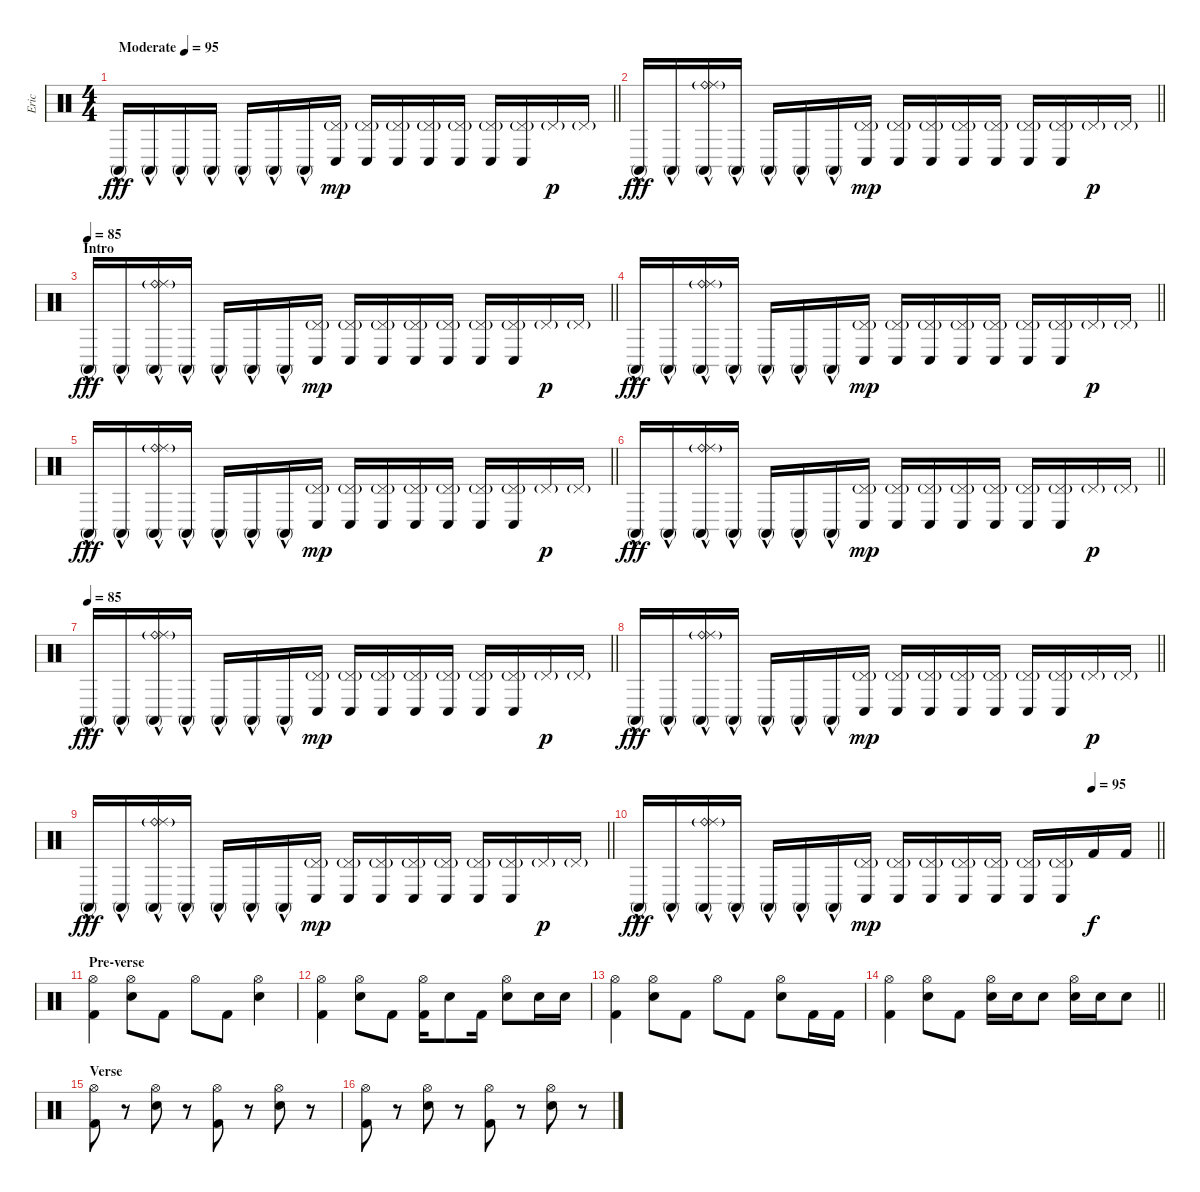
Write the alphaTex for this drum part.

\track ("Eric" "Eric") {instrument percussion}
\staff {score}
\articulation defaults
\ts (4 4)
\tempo (95 "Moderate")
\clef neutral
\barLineRight lightlight
\ks c "Conga high (mute)"{hac}.16{dy fff} "Conga high (mute)"{hac}.16 "Conga high (mute)"{hac}.16 "Conga high (mute)"{hac}.16 "Conga high (mute)"{hac}.16 "Conga high (mute)"{hac}.16 "Conga high (mute)"{hac}.16
("Pedal Hi-Hat (hit)"{g} "Conga low (hit)").16{dy mp} ("Pedal Hi-Hat (hit)"{g} "Conga low (hit)").16 ("Pedal Hi-Hat (hit)"{g} "Conga low (hit)").16 ("Pedal Hi-Hat (hit)"{g} "Conga low (hit)").16 ("Pedal Hi-Hat (hit)"{g} "Conga low (hit)").16 ("Pedal Hi-Hat (hit)"{g} "Conga low (hit)").16 ("Pedal Hi-Hat (hit)"{g} "Conga low (hit)").16 "Pedal Hi-Hat (hit)"{g}.16{dy p} "Pedal Hi-Hat (hit)"{g}.16 |
\barLineRight lightlight "Conga high (mute)"{hac}.16{dy fff} "Conga high (mute)"{hac}.16
("Ride (bell)"{g} "Ride (middle)"{g} "Conga high (mute)"{hac}).16 "Conga high (mute)"{hac}.16 "Conga high (mute)"{hac}.16 "Conga high (mute)"{hac}.16 "Conga high (mute)"{hac}.16 ("Pedal Hi-Hat (hit)"{g} "Conga low (hit)").16{dy mp} ("Pedal Hi-Hat (hit)"{g} "Conga low (hit)").16 ("Pedal Hi-Hat (hit)"{g} "Conga low (hit)").16 ("Pedal Hi-Hat (hit)"{g} "Conga low (hit)").16 ("Pedal Hi-Hat (hit)"{g} "Conga low (hit)").16 ("Pedal Hi-Hat (hit)"{g} "Conga low (hit)").16 ("Pedal Hi-Hat (hit)"{g} "Conga low (hit)").16 "Pedal Hi-Hat (hit)"{g}.16{dy p} "Pedal Hi-Hat (hit)"{g}.16 |
\section ("" "Intro")
\tempo 85
\barLineRight lightlight "Conga high (mute)"{hac}.16{dy fff} "Conga high (mute)"{hac}.16
("Ride (bell)"{g} "Ride (middle)"{g} "Conga high (mute)"{hac}).16 "Conga high (mute)"{hac}.16 "Conga high (mute)"{hac}.16 "Conga high (mute)"{hac}.16 "Conga high (mute)"{hac}.16 ("Pedal Hi-Hat (hit)"{g} "Conga low (hit)").16{dy mp} ("Pedal Hi-Hat (hit)"{g} "Conga low (hit)").16 ("Pedal Hi-Hat (hit)"{g} "Conga low (hit)").16 ("Pedal Hi-Hat (hit)"{g} "Conga low (hit)").16 ("Pedal Hi-Hat (hit)"{g} "Conga low (hit)").16 ("Pedal Hi-Hat (hit)"{g} "Conga low (hit)").16 ("Pedal Hi-Hat (hit)"{g} "Conga low (hit)").16 "Pedal Hi-Hat (hit)"{g}.16{dy p} "Pedal Hi-Hat (hit)"{g}.16 |
\barLineRight lightlight "Conga high (mute)"{hac}.16{dy fff} "Conga high (mute)"{hac}.16
("Ride (bell)"{g} "Ride (middle)"{g} "Conga high (mute)"{hac}).16 "Conga high (mute)"{hac}.16 "Conga high (mute)"{hac}.16 "Conga high (mute)"{hac}.16 "Conga high (mute)"{hac}.16 ("Pedal Hi-Hat (hit)"{g} "Conga low (hit)").16{dy mp} ("Pedal Hi-Hat (hit)"{g} "Conga low (hit)").16 ("Pedal Hi-Hat (hit)"{g} "Conga low (hit)").16 ("Pedal Hi-Hat (hit)"{g} "Conga low (hit)").16 ("Pedal Hi-Hat (hit)"{g} "Conga low (hit)").16 ("Pedal Hi-Hat (hit)"{g} "Conga low (hit)").16 ("Pedal Hi-Hat (hit)"{g} "Conga low (hit)").16 "Pedal Hi-Hat (hit)"{g}.16{dy p} "Pedal Hi-Hat (hit)"{g}.16 |
\barLineRight lightlight "Conga high (mute)"{hac}.16{dy fff} "Conga high (mute)"{hac}.16
("Ride (bell)"{g} "Ride (middle)"{g} "Conga high (mute)"{hac}).16 "Conga high (mute)"{hac}.16 "Conga high (mute)"{hac}.16 "Conga high (mute)"{hac}.16 "Conga high (mute)"{hac}.16 ("Pedal Hi-Hat (hit)"{g} "Conga low (hit)").16{dy mp} ("Pedal Hi-Hat (hit)"{g} "Conga low (hit)").16 ("Pedal Hi-Hat (hit)"{g} "Conga low (hit)").16 ("Pedal Hi-Hat (hit)"{g} "Conga low (hit)").16 ("Pedal Hi-Hat (hit)"{g} "Conga low (hit)").16 ("Pedal Hi-Hat (hit)"{g} "Conga low (hit)").16 ("Pedal Hi-Hat (hit)"{g} "Conga low (hit)").16 "Pedal Hi-Hat (hit)"{g}.16{dy p} "Pedal Hi-Hat (hit)"{g}.16 |
\barLineRight lightlight "Conga high (mute)"{hac}.16{dy fff} "Conga high (mute)"{hac}.16
("Ride (bell)"{g} "Ride (middle)"{g} "Conga high (mute)"{hac}).16 "Conga high (mute)"{hac}.16 "Conga high (mute)"{hac}.16 "Conga high (mute)"{hac}.16 "Conga high (mute)"{hac}.16 ("Pedal Hi-Hat (hit)"{g} "Conga low (hit)").16{dy mp} ("Pedal Hi-Hat (hit)"{g} "Conga low (hit)").16 ("Pedal Hi-Hat (hit)"{g} "Conga low (hit)").16 ("Pedal Hi-Hat (hit)"{g} "Conga low (hit)").16 ("Pedal Hi-Hat (hit)"{g} "Conga low (hit)").16 ("Pedal Hi-Hat (hit)"{g} "Conga low (hit)").16 ("Pedal Hi-Hat (hit)"{g} "Conga low (hit)").16 "Pedal Hi-Hat (hit)"{g}.16{dy p} "Pedal Hi-Hat (hit)"{g}.16 |
\tempo 85
\barLineRight lightlight "Conga high (mute)"{hac}.16{dy fff} "Conga high (mute)"{hac}.16
("Ride (bell)"{g} "Ride (middle)"{g} "Conga high (mute)"{hac}).16 "Conga high (mute)"{hac}.16 "Conga high (mute)"{hac}.16 "Conga high (mute)"{hac}.16 "Conga high (mute)"{hac}.16 ("Pedal Hi-Hat (hit)"{g} "Conga low (hit)").16{dy mp} ("Pedal Hi-Hat (hit)"{g} "Conga low (hit)").16 ("Pedal Hi-Hat (hit)"{g} "Conga low (hit)").16 ("Pedal Hi-Hat (hit)"{g} "Conga low (hit)").16 ("Pedal Hi-Hat (hit)"{g} "Conga low (hit)").16 ("Pedal Hi-Hat (hit)"{g} "Conga low (hit)").16 ("Pedal Hi-Hat (hit)"{g} "Conga low (hit)").16 "Pedal Hi-Hat (hit)"{g}.16{dy p} "Pedal Hi-Hat (hit)"{g}.16 |
\barLineRight lightlight "Conga high (mute)"{hac}.16{dy fff} "Conga high (mute)"{hac}.16
("Ride (bell)"{g} "Ride (middle)"{g} "Conga high (mute)"{hac}).16 "Conga high (mute)"{hac}.16 "Conga high (mute)"{hac}.16 "Conga high (mute)"{hac}.16 "Conga high (mute)"{hac}.16 ("Pedal Hi-Hat (hit)"{g} "Conga low (hit)").16{dy mp} ("Pedal Hi-Hat (hit)"{g} "Conga low (hit)").16 ("Pedal Hi-Hat (hit)"{g} "Conga low (hit)").16 ("Pedal Hi-Hat (hit)"{g} "Conga low (hit)").16 ("Pedal Hi-Hat (hit)"{g} "Conga low (hit)").16 ("Pedal Hi-Hat (hit)"{g} "Conga low (hit)").16 ("Pedal Hi-Hat (hit)"{g} "Conga low (hit)").16 "Pedal Hi-Hat (hit)"{g}.16{dy p} "Pedal Hi-Hat (hit)"{g}.16 |
\barLineRight lightlight "Conga high (mute)"{hac}.16{dy fff} "Conga high (mute)"{hac}.16
("Ride (bell)"{g} "Ride (middle)"{g} "Conga high (mute)"{hac}).16 "Conga high (mute)"{hac}.16 "Conga high (mute)"{hac}.16 "Conga high (mute)"{hac}.16 "Conga high (mute)"{hac}.16 ("Pedal Hi-Hat (hit)"{g} "Conga low (hit)").16{dy mp} ("Pedal Hi-Hat (hit)"{g} "Conga low (hit)").16 ("Pedal Hi-Hat (hit)"{g} "Conga low (hit)").16 ("Pedal Hi-Hat (hit)"{g} "Conga low (hit)").16 ("Pedal Hi-Hat (hit)"{g} "Conga low (hit)").16 ("Pedal Hi-Hat (hit)"{g} "Conga low (hit)").16 ("Pedal Hi-Hat (hit)"{g} "Conga low (hit)").16 "Pedal Hi-Hat (hit)"{g}.16{dy p} "Pedal Hi-Hat (hit)"{g}.16 |
\tempo (95 0.875)
\barLineRight lightlight "Conga high (mute)"{hac}.16{dy fff} "Conga high (mute)"{hac}.16
("Ride (bell)"{g} "Ride (middle)"{g} "Conga high (mute)"{hac}).16 "Conga high (mute)"{hac}.16 "Conga high (mute)"{hac}.16 "Conga high (mute)"{hac}.16 "Conga high (mute)"{hac}.16 ("Pedal Hi-Hat (hit)"{g} "Conga low (hit)").16{dy mp} ("Pedal Hi-Hat (hit)"{g} "Conga low (hit)").16 ("Pedal Hi-Hat (hit)"{g} "Conga low (hit)").16 ("Pedal Hi-Hat (hit)"{g} "Conga low (hit)").16 ("Pedal Hi-Hat (hit)"{g} "Conga low (hit)").16 ("Pedal Hi-Hat (hit)"{g} "Conga low (hit)").16 ("Pedal Hi-Hat (hit)"{g} "Conga low (hit)").16 "Kick (hit) 2".16{dy f} "Kick (hit) 2".16 |
\section ("" "Pre-verse")
("Hi-Hat (open)" "Kick (hit) 2").4 ("Hi-Hat (open)" "Electric Snare (hit)").8 "Kick (hit) 2".8 "Hi-Hat (open)".8 "Kick (hit) 2".8 ("Hi-Hat (open)" "Electric Snare (hit)").4 |
("Hi-Hat (open)" "Kick (hit) 2").4 ("Hi-Hat (open)" "Electric Snare (hit)").8 "Kick (hit) 2".8 ("Hi-Hat (open)" "Kick (hit) 2").16 "Electric Snare (hit)".8 "Kick (hit) 2".16 ("Hi-Hat (open)" "Electric Snare (hit)").8 "Electric Snare (hit)".16 "Electric Snare (hit)".16 |
("Hi-Hat (open)" "Kick (hit) 2").4 ("Hi-Hat (open)" "Electric Snare (hit)").8 "Kick (hit) 2".8 "Hi-Hat (open)".8 "Kick (hit) 2".8 ("Hi-Hat (open)" "Electric Snare (hit)").8 "Kick (hit) 2".16 "Kick (hit) 2".16 |
\barLineRight lightlight
("Hi-Hat (open)" "Kick (hit) 2").4 ("Hi-Hat (open)" "Electric Snare (hit)").8 "Kick (hit) 2".8 ("Hi-Hat (open)" "Electric Snare (hit)").16 "Electric Snare (hit)".16 "Electric Snare (hit)".8 ("Hi-Hat (open)" "Electric Snare (hit)").16 "Electric Snare (hit)".16 "Electric Snare (hit)".8 |
\section ("" "Verse")
("Hi-Hat (open)" "Kick (hit) 2").8 r.8 ("Hi-Hat (open)" "Electric Snare (hit)").8 r.8 ("Hi-Hat (open)" "Kick (hit) 2").8 r.8 ("Hi-Hat (open)" "Electric Snare (hit)").8 r.8 |
("Hi-Hat (open)" "Kick (hit) 2").8 r.8 ("Hi-Hat (open)" "Electric Snare (hit)").8 r.8 ("Hi-Hat (open)" "Kick (hit) 2").8 r.8 ("Hi-Hat (open)" "Electric Snare (hit)").8 r.8
